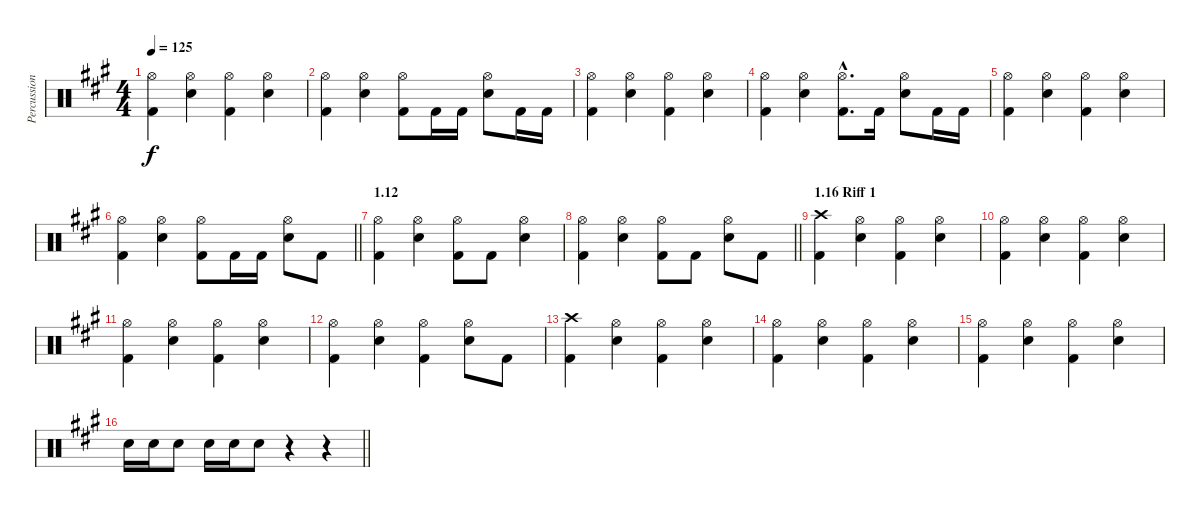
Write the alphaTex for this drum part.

\track ("Percussion" "Percussion") {instrument percussion}
\staff {score}
\articulation defaults
\ts (4 4)
\tempo 125
\clef neutral
\ks f#minor
("Hi-Hat (open)" "Kick (hit) 2").4{dy f} ("Hi-Hat (open)" "Electric Snare (hit)").4 ("Hi-Hat (open)" "Kick (hit) 2").4 ("Hi-Hat (open)" "Electric Snare (hit)").4 |
("Hi-Hat (open)" "Kick (hit) 2").4 ("Hi-Hat (open)" "Electric Snare (hit)").4 ("Hi-Hat (open)" "Kick (hit) 2").8 "Kick (hit) 2".16 "Kick (hit) 2".16 ("Hi-Hat (open)" "Electric Snare (hit)").8 "Kick (hit) 2".16 "Kick (hit) 2".16 |
("Hi-Hat (open)" "Kick (hit) 2").4 ("Hi-Hat (open)" "Electric Snare (hit)").4 ("Hi-Hat (open)" "Kick (hit) 2").4 ("Hi-Hat (open)" "Electric Snare (hit)").4 |
("Hi-Hat (open)" "Kick (hit) 2").4 ("Hi-Hat (open)" "Electric Snare (hit)").4 ("Hi-Hat (open)"{hac} "Kick (hit) 2"{hac}).8{d} "Kick (hit) 2".16 ("Hi-Hat (open)" "Electric Snare (hit)").8 "Kick (hit) 2".16 "Kick (hit) 2".16 |
("Hi-Hat (open)" "Kick (hit) 2").4 ("Hi-Hat (open)" "Electric Snare (hit)").4 ("Hi-Hat (open)" "Kick (hit) 2").4 ("Hi-Hat (open)" "Electric Snare (hit)").4 |
\barLineRight lightlight
("Hi-Hat (open)" "Kick (hit) 2").4 ("Hi-Hat (open)" "Electric Snare (hit)").4 ("Hi-Hat (open)" "Kick (hit) 2").8 "Kick (hit) 2".16 "Kick (hit) 2".16 ("Hi-Hat (open)" "Electric Snare (hit)").8 "Kick (hit) 2".8 |
\section ("" "1.12")
("Hi-Hat (open)" "Kick (hit) 2").4 ("Hi-Hat (open)" "Electric Snare (hit)").4 ("Hi-Hat (open)" "Kick (hit) 2").8 "Kick (hit) 2".8 ("Hi-Hat (open)" "Electric Snare (hit)").4 |
\barLineRight lightlight
("Hi-Hat (open)" "Kick (hit) 2").4 ("Hi-Hat (open)" "Electric Snare (hit)").4 ("Hi-Hat (open)" "Kick (hit) 2").8 "Kick (hit) 2".8 ("Hi-Hat (open)" "Electric Snare (hit)").8 "Kick (hit) 2".8 |
\section ("" "1.16 Riff 1")
("Crash high (hit)" "Kick (hit) 2").4 ("Hi-Hat (open)" "Electric Snare (hit)").4 ("Hi-Hat (open)" "Kick (hit) 2").4 ("Hi-Hat (open)" "Electric Snare (hit)").4 |
("Hi-Hat (open)" "Kick (hit) 2").4 ("Hi-Hat (open)" "Electric Snare (hit)").4 ("Hi-Hat (open)" "Kick (hit) 2").4 ("Hi-Hat (open)" "Electric Snare (hit)").4 |
("Hi-Hat (open)" "Kick (hit) 2").4 ("Hi-Hat (open)" "Electric Snare (hit)").4 ("Hi-Hat (open)" "Kick (hit) 2").4 ("Hi-Hat (open)" "Electric Snare (hit)").4 |
("Hi-Hat (open)" "Kick (hit) 2").4 ("Hi-Hat (open)" "Electric Snare (hit)").4 ("Hi-Hat (open)" "Kick (hit) 2").4 ("Hi-Hat (open)" "Electric Snare (hit)").8 "Kick (hit) 2".8 |
("Crash high (hit)" "Kick (hit) 2").4 ("Hi-Hat (open)" "Electric Snare (hit)").4 ("Hi-Hat (open)" "Kick (hit) 2").4 ("Hi-Hat (open)" "Electric Snare (hit)").4 |
("Hi-Hat (open)" "Kick (hit) 2").4 ("Hi-Hat (open)" "Electric Snare (hit)").4 ("Hi-Hat (open)" "Kick (hit) 2").4 ("Hi-Hat (open)" "Electric Snare (hit)").4 |
("Hi-Hat (open)" "Kick (hit) 2").4 ("Hi-Hat (open)" "Electric Snare (hit)").4 ("Hi-Hat (open)" "Kick (hit) 2").4 ("Hi-Hat (open)" "Electric Snare (hit)").4 |
\barLineRight lightlight "Electric Snare (hit)".16 "Electric Snare (hit)".16 "Electric Snare (hit)".8 "Electric Snare (hit)".16 "Electric Snare (hit)".16 "Electric Snare (hit)".8
r.4 r.4
